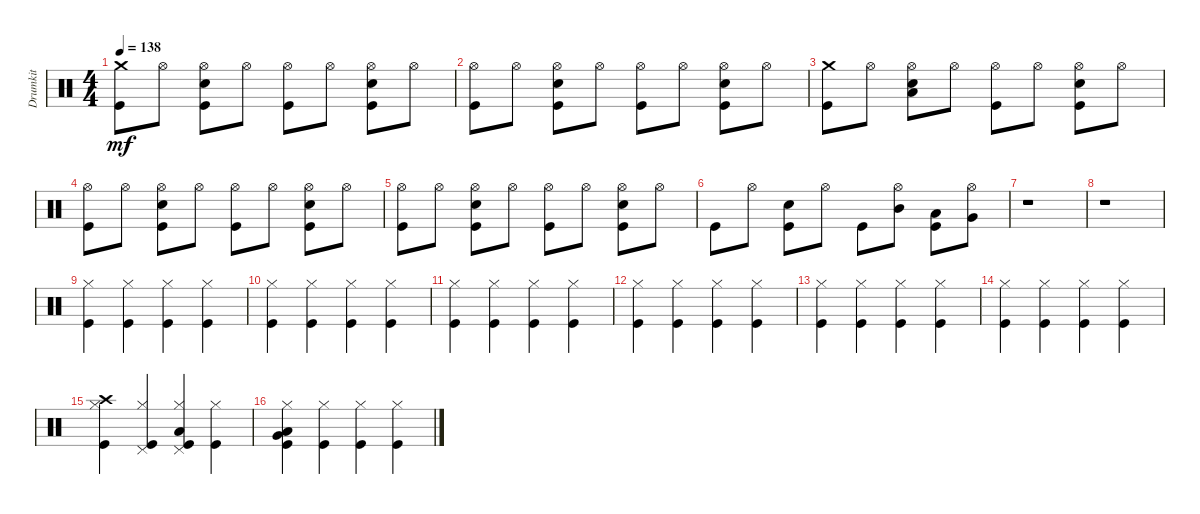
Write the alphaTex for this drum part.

\track ("Drumkit" "Drumkit") {instrument percussion}
\staff {score}
\articulation defaults
\ts (4 4)
\tempo 138
\clef neutral
\ks c
("Kick (hit)" "Crash medium (hit)").8{dy mf} "Hi-Hat (open)".8 ("Snare (hit) 2" "Hi-Hat (open)" "Kick (hit)").8 "Hi-Hat (open)".8 ("Kick (hit)" "Hi-Hat (open)").8 "Hi-Hat (open)".8 ("Snare (hit) 2" "Hi-Hat (open)" "Kick (hit)").8 "Hi-Hat (open)".8 |
("Kick (hit)" "Hi-Hat (open)").8 "Hi-Hat (open)".8 ("Snare (hit) 2" "Hi-Hat (open)" "Kick (hit)").8 "Hi-Hat (open)".8 ("Kick (hit)" "Hi-Hat (open)").8 "Hi-Hat (open)".8 ("Snare (hit) 2" "Hi-Hat (open)" "Kick (hit)").8 "Hi-Hat (open)".8 |
("Kick (hit)" "Crash medium (hit)").8 "Hi-Hat (open)".8 ("Snare (hit) 2" "Hi-Hat (open)" "Low Floor Tom (hit)").8 "Hi-Hat (open)".8 ("Kick (hit)" "Hi-Hat (open)").8 "Hi-Hat (open)".8 ("Snare (hit) 2" "Hi-Hat (open)" "Kick (hit)").8 "Hi-Hat (open)".8 |
("Kick (hit)" "Hi-Hat (open)").8 "Hi-Hat (open)".8 ("Snare (hit) 2" "Hi-Hat (open)" "Kick (hit)").8 "Hi-Hat (open)".8 ("Kick (hit)" "Hi-Hat (open)").8 "Hi-Hat (open)".8 ("Snare (hit) 2" "Hi-Hat (open)" "Kick (hit)").8 "Hi-Hat (open)".8 |
("Kick (hit)" "Hi-Hat (open)").8 "Hi-Hat (open)".8 ("Snare (hit) 2" "Hi-Hat (open)" "Kick (hit)").8 "Hi-Hat (open)".8 ("Kick (hit)" "Hi-Hat (open)").8 "Hi-Hat (open)".8 ("Snare (hit) 2" "Hi-Hat (open)" "Kick (hit)").8 "Hi-Hat (open)".8 |
"Kick (hit)".8 "Hi-Hat (open)".8 ("Snare (hit) 2" "Kick (hit)").8 "Hi-Hat (open)".8 "Kick (hit)".8 ("Hi-Hat (open)" "Mid Tom (hit)").8 ("Low Tom (hit)" "Kick (hit)").8 ("Hi-Hat (open)" "Very Low Tom (hit)").8 |
r.1 |
r.1 |
("Kick (hit)" "Hi-Hat (closed)").4 ("Kick (hit)" "Hi-Hat (closed)").4 ("Kick (hit)" "Hi-Hat (closed)").4 ("Kick (hit)" "Hi-Hat (closed)").4 |
("Kick (hit)" "Hi-Hat (closed)").4 ("Kick (hit)" "Hi-Hat (closed)").4 ("Kick (hit)" "Hi-Hat (closed)").4 ("Kick (hit)" "Hi-Hat (closed)").4 |
("Kick (hit)" "Hi-Hat (closed)").4 ("Kick (hit)" "Hi-Hat (closed)").4 ("Kick (hit)" "Hi-Hat (closed)").4 ("Kick (hit)" "Hi-Hat (closed)").4 |
("Kick (hit)" "Hi-Hat (closed)").4 ("Kick (hit)" "Hi-Hat (closed)").4 ("Kick (hit)" "Hi-Hat (closed)").4 ("Kick (hit)" "Hi-Hat (closed)").4 |
("Kick (hit)" "Hi-Hat (closed)").4 ("Kick (hit)" "Hi-Hat (closed)").4 ("Kick (hit)" "Hi-Hat (closed)").4 ("Kick (hit)" "Hi-Hat (closed)").4 |
("Kick (hit)" "Hi-Hat (closed)").4 ("Kick (hit)" "Hi-Hat (closed)").4 ("Kick (hit)" "Hi-Hat (closed)").4 ("Kick (hit)" "Hi-Hat (closed)").4 |
("Kick (hit)" "Crash high (hit)" "Hi-Hat (closed)").4 ("Pedal Hi-Hat (hit)" "Kick (hit)" "Hi-Hat (closed)").4 ("Low Tom (hit)" "Pedal Hi-Hat (hit)" "Kick (hit)" "Hi-Hat (closed)").4 ("Kick (hit)" "Hi-Hat (closed)").4 |
("Low Tom (hit)" "Very Low Tom (hit)" "Kick (hit)" "Hi-Hat (closed)").4 ("Hi-Hat (closed)" "Kick (hit)").4 ("Kick (hit)" "Hi-Hat (closed)").4 ("Kick (hit)" "Hi-Hat (closed)").4
